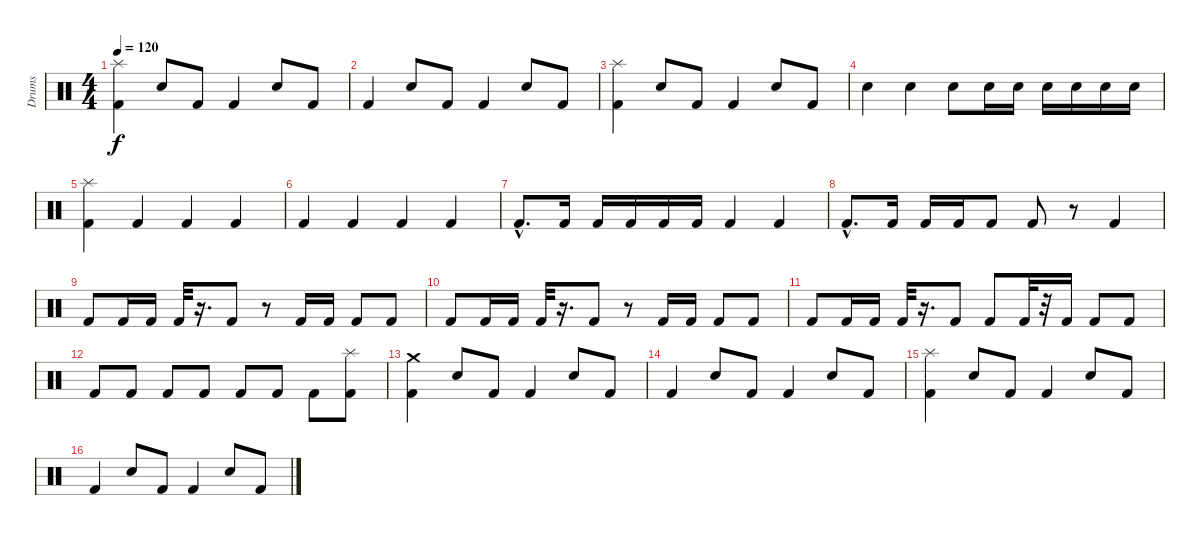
\track ("Drums" "Drums") {instrument percussion}
\staff {score}
\articulation defaults
\ts (4 4)
\tempo 120
\clef neutral
\ks c
("Splash (hit)" "Kick (hit) 2").4{dy f} "Snare (hit) 2".8 "Kick (hit) 2".8 "Kick (hit) 2".4 "Snare (hit) 2".8 "Kick (hit) 2".8 |
"Kick (hit) 2".4 "Snare (hit) 2".8 "Kick (hit) 2".8 "Kick (hit) 2".4 "Snare (hit) 2".8 "Kick (hit) 2".8 |
("Splash (hit)" "Kick (hit) 2").4 "Snare (hit) 2".8 "Kick (hit) 2".8 "Kick (hit) 2".4 "Snare (hit) 2".8 "Kick (hit) 2".8 |
"Snare (hit) 2".4 "Snare (hit) 2".4 "Snare (hit) 2".8 "Snare (hit) 2".16 "Snare (hit) 2".16 "Snare (hit) 2".16 "Snare (hit) 2".16 "Snare (hit) 2".16 "Snare (hit) 2".16 |
("Splash (hit)" "Kick (hit) 2").4 "Kick (hit) 2".4 "Kick (hit) 2".4 "Kick (hit) 2".4 |
"Kick (hit) 2".4 "Kick (hit) 2".4 "Kick (hit) 2".4 "Kick (hit) 2".4 |
"Kick (hit) 2"{hac}.8{d} "Kick (hit) 2".16 "Kick (hit) 2".16 "Kick (hit) 2".16 "Kick (hit) 2".16 "Kick (hit) 2".16 "Kick (hit) 2".4 "Kick (hit) 2".4 |
"Kick (hit) 2"{hac}.8{d} "Kick (hit) 2".16 "Kick (hit) 2".16 "Kick (hit) 2".16 "Kick (hit) 2".8 "Kick (hit) 2".8 r.8 "Kick (hit) 2".4 |
"Kick (hit) 2".8 "Kick (hit) 2".16 "Kick (hit) 2".16 "Kick (hit) 2".32 r.16{d} "Kick (hit) 2".8 r.8 "Kick (hit) 2".16 "Kick (hit) 2".16 "Kick (hit) 2".8 "Kick (hit) 2".8 |
"Kick (hit) 2".8 "Kick (hit) 2".16 "Kick (hit) 2".16 "Kick (hit) 2".32 r.16{d} "Kick (hit) 2".8 r.8 "Kick (hit) 2".16 "Kick (hit) 2".16 "Kick (hit) 2".8 "Kick (hit) 2".8 |
"Kick (hit) 2".8 "Kick (hit) 2".16 "Kick (hit) 2".16 "Kick (hit) 2".32 r.16{d} "Kick (hit) 2".8 "Kick (hit) 2".8 "Kick (hit) 2".32 r.32 "Kick (hit) 2".16 "Kick (hit) 2".8 "Kick (hit) 2".8 |
"Kick (hit) 2".8 "Kick (hit) 2".8 "Kick (hit) 2".8 "Kick (hit) 2".8 "Kick (hit) 2".8 "Kick (hit) 2".8 "Kick (hit) 2".8 ("Splash (hit)" "Kick (hit) 2").8 |
("Crash medium (hit)" "Kick (hit) 2").4 "Snare (hit) 2".8 "Kick (hit) 2".8 "Kick (hit) 2".4 "Snare (hit) 2".8 "Kick (hit) 2".8 |
"Kick (hit) 2".4 "Snare (hit) 2".8 "Kick (hit) 2".8 "Kick (hit) 2".4 "Snare (hit) 2".8 "Kick (hit) 2".8 |
("Splash (hit)" "Kick (hit) 2").4 "Snare (hit) 2".8 "Kick (hit) 2".8 "Kick (hit) 2".4 "Snare (hit) 2".8 "Kick (hit) 2".8 |
"Kick (hit) 2".4 "Snare (hit) 2".8 "Kick (hit) 2".8 "Kick (hit) 2".4 "Snare (hit) 2".8 "Kick (hit) 2".8
